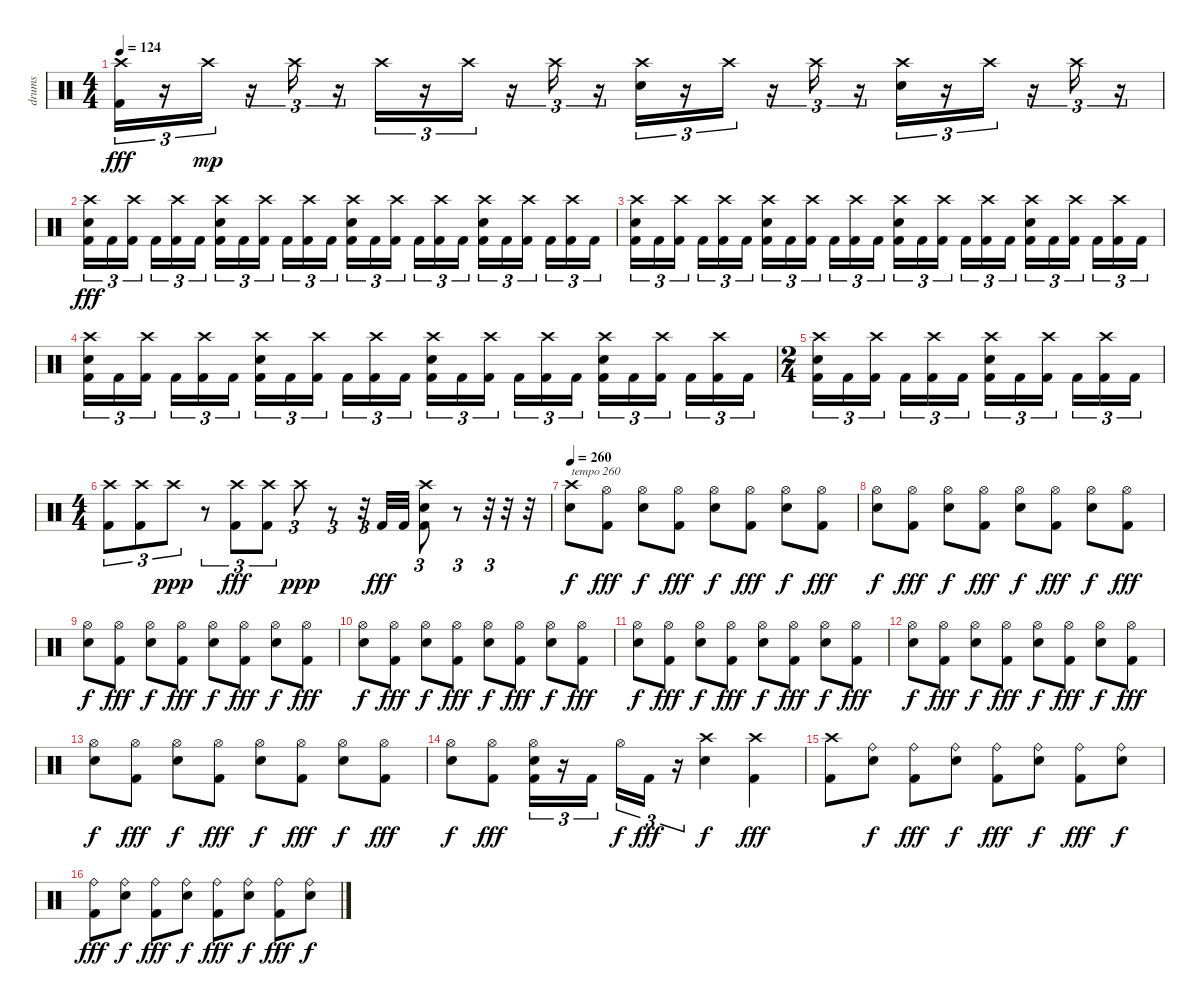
\track ("drums" "drums") {instrument percussion}
\staff {score}
\articulation defaults
\ts (4 4)
\tempo 124
\clef neutral
\ks c
("Crash high (hit)" "Kick (hit) 2").16{tu (3 2) dy fff} r.16{tu (3 2)} "Crash high (hit)".16{tu (3 2) dy mp} r.16{tu (3 2)} "Crash high (hit)".16{tu (3 2)} r.16{tu (3 2)} "Crash high (hit)".16{tu (3 2)} r.16{tu (3 2)} "Crash high (hit)".16{tu (3 2)} r.16{tu (3 2)} "Crash high (hit)".16{tu (3 2)} r.16{tu (3 2)} ("Crash high (hit)" "Snare (hit) 2").16{tu (3 2)} r.16{tu (3 2)} "Crash high (hit)".16{tu (3 2)} r.16{tu (3 2)} "Crash high (hit)".16{tu (3 2)} r.16{tu (3 2)} ("Crash high (hit)" "Snare (hit) 2").16{tu (3 2)} r.16{tu (3 2)} "Crash high (hit)".16{tu (3 2)} r.16{tu (3 2)} "Crash high (hit)".16{tu (3 2)} r.16{tu (3 2)} |
("Crash high (hit)" "Snare (hit) 2" "Kick (hit) 2").16{tu (3 2) dy fff} "Kick (hit) 2".16{tu (3 2)} ("Crash high (hit)" "Kick (hit) 2").16{tu (3 2)} "Kick (hit) 2".16{tu (3 2)} ("Crash high (hit)" "Kick (hit) 2").16{tu (3 2)} "Kick (hit) 2".16{tu (3 2)} ("Crash high (hit)" "Snare (hit) 2" "Kick (hit) 2").16{tu (3 2)} "Kick (hit) 2".16{tu (3 2)} ("Crash high (hit)" "Kick (hit) 2").16{tu (3 2)} "Kick (hit) 2".16{tu (3 2)} ("Crash high (hit)" "Kick (hit) 2").16{tu (3 2)} "Kick (hit) 2".16{tu (3 2)} ("Crash high (hit)" "Snare (hit) 2" "Kick (hit) 2").16{tu (3 2)} "Kick (hit) 2".16{tu (3 2)} ("Crash high (hit)" "Kick (hit) 2").16{tu (3 2)} "Kick (hit) 2".16{tu (3 2)} ("Crash high (hit)" "Kick (hit) 2").16{tu (3 2)} "Kick (hit) 2".16{tu (3 2)} ("Crash high (hit)" "Snare (hit) 2" "Kick (hit) 2").16{tu (3 2)} "Kick (hit) 2".16{tu (3 2)} ("Crash high (hit)" "Kick (hit) 2").16{tu (3 2)} "Kick (hit) 2".16{tu (3 2)} ("Crash high (hit)" "Kick (hit) 2").16{tu (3 2)} "Kick (hit) 2".16{tu (3 2)} |
("Crash high (hit)" "Snare (hit) 2" "Kick (hit) 2").16{tu (3 2)} "Kick (hit) 2".16{tu (3 2)} ("Crash high (hit)" "Kick (hit) 2").16{tu (3 2)} "Kick (hit) 2".16{tu (3 2)} ("Crash high (hit)" "Kick (hit) 2").16{tu (3 2)} "Kick (hit) 2".16{tu (3 2)} ("Crash high (hit)" "Snare (hit) 2" "Kick (hit) 2").16{tu (3 2)} "Kick (hit) 2".16{tu (3 2)} ("Crash high (hit)" "Kick (hit) 2").16{tu (3 2)} "Kick (hit) 2".16{tu (3 2)} ("Crash high (hit)" "Kick (hit) 2").16{tu (3 2)} "Kick (hit) 2".16{tu (3 2)} ("Crash high (hit)" "Snare (hit) 2" "Kick (hit) 2").16{tu (3 2)} "Kick (hit) 2".16{tu (3 2)} ("Crash high (hit)" "Kick (hit) 2").16{tu (3 2)} "Kick (hit) 2".16{tu (3 2)} ("Crash high (hit)" "Kick (hit) 2").16{tu (3 2)} "Kick (hit) 2".16{tu (3 2)} ("Crash high (hit)" "Snare (hit) 2" "Kick (hit) 2").16{tu (3 2)} "Kick (hit) 2".16{tu (3 2)} ("Crash high (hit)" "Kick (hit) 2").16{tu (3 2)} "Kick (hit) 2".16{tu (3 2)} ("Crash high (hit)" "Kick (hit) 2").16{tu (3 2)} "Kick (hit) 2".16{tu (3 2)} |
("Crash high (hit)" "Snare (hit) 2" "Kick (hit) 2").16{tu (3 2)} "Kick (hit) 2".16{tu (3 2)} ("Crash high (hit)" "Kick (hit) 2").16{tu (3 2)} "Kick (hit) 2".16{tu (3 2)} ("Crash high (hit)" "Kick (hit) 2").16{tu (3 2)} "Kick (hit) 2".16{tu (3 2)} ("Crash high (hit)" "Snare (hit) 2" "Kick (hit) 2").16{tu (3 2)} "Kick (hit) 2".16{tu (3 2)} ("Crash high (hit)" "Kick (hit) 2").16{tu (3 2)} "Kick (hit) 2".16{tu (3 2)} ("Crash high (hit)" "Kick (hit) 2").16{tu (3 2)} "Kick (hit) 2".16{tu (3 2)} ("Crash high (hit)" "Snare (hit) 2" "Kick (hit) 2").16{tu (3 2)} "Kick (hit) 2".16{tu (3 2)} ("Crash high (hit)" "Kick (hit) 2").16{tu (3 2)} "Kick (hit) 2".16{tu (3 2)} ("Crash high (hit)" "Kick (hit) 2").16{tu (3 2)} "Kick (hit) 2".16{tu (3 2)} ("Crash high (hit)" "Snare (hit) 2" "Kick (hit) 2").16{tu (3 2)} "Kick (hit) 2".16{tu (3 2)} ("Crash high (hit)" "Kick (hit) 2").16{tu (3 2)} "Kick (hit) 2".16{tu (3 2)} ("Crash high (hit)" "Kick (hit) 2").16{tu (3 2)} "Kick (hit) 2".16{tu (3 2)} |
\ts (2 4)
("Crash high (hit)" "Snare (hit) 2" "Kick (hit) 2").16{tu (3 2)} "Kick (hit) 2".16{tu (3 2)} ("Crash high (hit)" "Kick (hit) 2").16{tu (3 2)} "Kick (hit) 2".16{tu (3 2)} ("Crash high (hit)" "Kick (hit) 2").16{tu (3 2)} "Kick (hit) 2".16{tu (3 2)} ("Crash high (hit)" "Snare (hit) 2" "Kick (hit) 2").16{tu (3 2)} "Kick (hit) 2".16{tu (3 2)} ("Crash high (hit)" "Kick (hit) 2").16{tu (3 2)} "Kick (hit) 2".16{tu (3 2)} ("Crash high (hit)" "Kick (hit) 2").16{tu (3 2)} "Kick (hit) 2".16{tu (3 2)} |
\ts (4 4)
("Crash high (hit)" "Kick (hit) 2").8{tu (3 2)} ("Crash high (hit)" "Kick (hit) 2").8{tu (3 2)} "Crash high (hit)".8{tu (3 2) dy ppp} r.8{tu (3 2)} ("Crash high (hit)" "Kick (hit) 2").8{tu (3 2) dy fff} ("Crash high (hit)" "Kick (hit) 2").8{tu (3 2)} "Crash high (hit)".8{tu (3 2) dy ppp} r.8{tu (3 2)} r.32{tu (3 2)} "Kick (hit) 2".32{dy fff} "Kick (hit) 2".32 ("Crash high (hit)" "Snare (hit) 2" "Kick (hit) 2").8{tu (3 2)} r.8{tu (3 2)} r.32{tu (3 2)} r.32 r.32 |
\tempo 260
("Crash high (hit)" "Snare (hit) 2").8{txt "tempo 260" dy f} ("Hi-Hat (open)" "Kick (hit) 2").8{dy fff} ("Hi-Hat (open)" "Snare (hit) 2").8{dy f} ("Hi-Hat (open)" "Kick (hit) 2").8{dy fff} ("Hi-Hat (open)" "Snare (hit) 2").8{dy f} ("Hi-Hat (open)" "Kick (hit) 2").8{dy fff} ("Hi-Hat (open)" "Snare (hit) 2").8{dy f} ("Hi-Hat (open)" "Kick (hit) 2").8{dy fff} |
("Hi-Hat (open)" "Snare (hit) 2").8{dy f} ("Hi-Hat (open)" "Kick (hit) 2").8{dy fff} ("Hi-Hat (open)" "Snare (hit) 2").8{dy f} ("Hi-Hat (open)" "Kick (hit) 2").8{dy fff} ("Hi-Hat (open)" "Snare (hit) 2").8{dy f} ("Hi-Hat (open)" "Kick (hit) 2").8{dy fff} ("Hi-Hat (open)" "Snare (hit) 2").8{dy f} ("Hi-Hat (open)" "Kick (hit) 2").8{dy fff} |
("Hi-Hat (open)" "Snare (hit) 2").8{dy f} ("Hi-Hat (open)" "Kick (hit) 2").8{dy fff} ("Hi-Hat (open)" "Snare (hit) 2").8{dy f} ("Hi-Hat (open)" "Kick (hit) 2").8{dy fff} ("Hi-Hat (open)" "Snare (hit) 2").8{dy f} ("Hi-Hat (open)" "Kick (hit) 2").8{dy fff} ("Hi-Hat (open)" "Snare (hit) 2").8{dy f} ("Hi-Hat (open)" "Kick (hit) 2").8{dy fff} |
("Hi-Hat (open)" "Snare (hit) 2").8{dy f} ("Hi-Hat (open)" "Kick (hit) 2").8{dy fff} ("Hi-Hat (open)" "Snare (hit) 2").8{dy f} ("Hi-Hat (open)" "Kick (hit) 2").8{dy fff} ("Hi-Hat (open)" "Snare (hit) 2").8{dy f} ("Hi-Hat (open)" "Kick (hit) 2").8{dy fff} ("Hi-Hat (open)" "Snare (hit) 2").8{dy f} ("Hi-Hat (open)" "Kick (hit) 2").8{dy fff} |
("Hi-Hat (open)" "Snare (hit) 2").8{dy f} ("Hi-Hat (open)" "Kick (hit) 2").8{dy fff} ("Hi-Hat (open)" "Snare (hit) 2").8{dy f} ("Hi-Hat (open)" "Kick (hit) 2").8{dy fff} ("Hi-Hat (open)" "Snare (hit) 2").8{dy f} ("Hi-Hat (open)" "Kick (hit) 2").8{dy fff} ("Hi-Hat (open)" "Snare (hit) 2").8{dy f} ("Hi-Hat (open)" "Kick (hit) 2").8{dy fff} |
("Hi-Hat (open)" "Snare (hit) 2").8{dy f} ("Hi-Hat (open)" "Kick (hit) 2").8{dy fff} ("Hi-Hat (open)" "Snare (hit) 2").8{dy f} ("Hi-Hat (open)" "Kick (hit) 2").8{dy fff} ("Hi-Hat (open)" "Snare (hit) 2").8{dy f} ("Hi-Hat (open)" "Kick (hit) 2").8{dy fff} ("Hi-Hat (open)" "Snare (hit) 2").8{dy f} ("Hi-Hat (open)" "Kick (hit) 2").8{dy fff} |
("Hi-Hat (open)" "Snare (hit) 2").8{dy f} ("Hi-Hat (open)" "Kick (hit) 2").8{dy fff} ("Hi-Hat (open)" "Snare (hit) 2").8{dy f} ("Hi-Hat (open)" "Kick (hit) 2").8{dy fff} ("Hi-Hat (open)" "Snare (hit) 2").8{dy f} ("Hi-Hat (open)" "Kick (hit) 2").8{dy fff} ("Hi-Hat (open)" "Snare (hit) 2").8{dy f} ("Hi-Hat (open)" "Kick (hit) 2").8{dy fff} |
("Hi-Hat (open)" "Snare (hit) 2").8{dy f} ("Hi-Hat (open)" "Kick (hit) 2").8{dy fff} ("Hi-Hat (open)" "Snare (hit) 2" "Kick (hit) 2").16{tu (3 2)} r.16{tu (3 2)} "Kick (hit) 2".16{tu (3 2)} "Hi-Hat (open)".16{tu (3 2) dy f} "Kick (hit) 2".16{tu (3 2) dy fff} r.16{tu (3 2)} ("Crash high (hit)" "Snare (hit) 2").4{dy f} ("Crash high (hit)" "Kick (hit) 2").4{dy fff} |
("Crash high (hit)" "Kick (hit) 2").8 ("Ride (bell)" "Snare (hit) 2").8{dy f} ("Ride (bell)" "Kick (hit) 2").8{dy fff} ("Ride (bell)" "Snare (hit) 2").8{dy f} ("Ride (bell)" "Kick (hit) 2").8{dy fff} ("Ride (bell)" "Snare (hit) 2").8{dy f} ("Ride (bell)" "Kick (hit) 2").8{dy fff} ("Ride (bell)" "Snare (hit) 2").8{dy f} |
("Ride (bell)" "Kick (hit) 2").8{dy fff} ("Ride (bell)" "Snare (hit) 2").8{dy f} ("Ride (bell)" "Kick (hit) 2").8{dy fff} ("Ride (bell)" "Snare (hit) 2").8{dy f} ("Ride (bell)" "Kick (hit) 2").8{dy fff} ("Ride (bell)" "Snare (hit) 2").8{dy f} ("Ride (bell)" "Kick (hit) 2").8{dy fff} ("Ride (bell)" "Snare (hit) 2").8{dy f}
